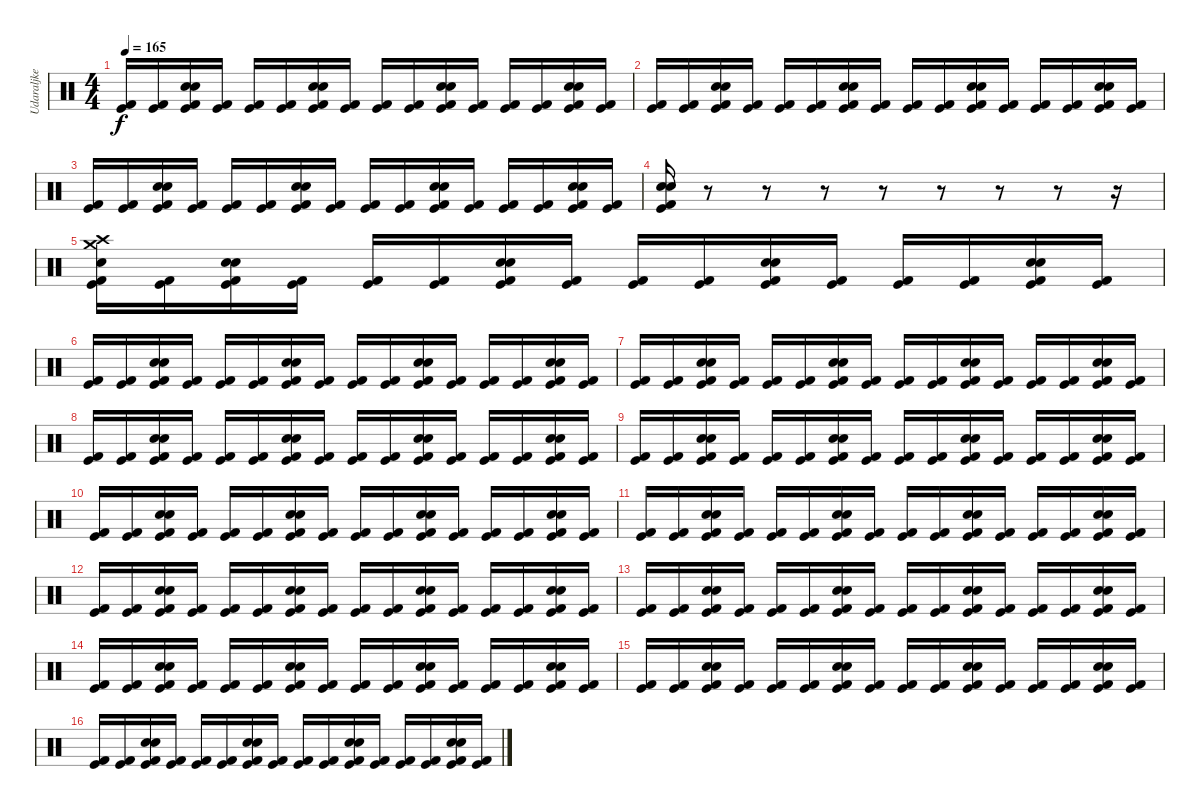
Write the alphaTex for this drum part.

\track ("Udaraljke" "Udaraljke") {instrument percussion}
\staff {score}
\articulation defaults
\ts (4 4)
\tempo 165
\clef neutral
\ks c
("Kick (hit) 2" "Kick (hit)").16{dy f} ("Kick (hit) 2" "Kick (hit)").16 ("Snare (hit) 2" "Snare (hit) 2" "Kick (hit) 2" "Kick (hit)").16 ("Kick (hit) 2" "Kick (hit)").16 ("Kick (hit) 2" "Kick (hit)").16 ("Kick (hit) 2" "Kick (hit)").16 ("Snare (hit) 2" "Snare (hit) 2" "Kick (hit) 2" "Kick (hit)").16 ("Kick (hit) 2" "Kick (hit)").16 ("Kick (hit) 2" "Kick (hit)").16 ("Kick (hit) 2" "Kick (hit)").16 ("Snare (hit) 2" "Snare (hit) 2" "Kick (hit) 2" "Kick (hit)").16 ("Kick (hit) 2" "Kick (hit)").16 ("Kick (hit) 2" "Kick (hit)").16 ("Kick (hit) 2" "Kick (hit)").16 ("Snare (hit) 2" "Snare (hit) 2" "Kick (hit) 2" "Kick (hit)").16 ("Kick (hit) 2" "Kick (hit)").16 |
("Kick (hit) 2" "Kick (hit)").16 ("Kick (hit) 2" "Kick (hit)").16 ("Snare (hit) 2" "Snare (hit) 2" "Kick (hit) 2" "Kick (hit)").16 ("Kick (hit) 2" "Kick (hit)").16 ("Kick (hit) 2" "Kick (hit)").16 ("Kick (hit) 2" "Kick (hit)").16 ("Snare (hit) 2" "Snare (hit) 2" "Kick (hit) 2" "Kick (hit)").16 ("Kick (hit) 2" "Kick (hit)").16 ("Kick (hit) 2" "Kick (hit)").16 ("Kick (hit) 2" "Kick (hit)").16 ("Snare (hit) 2" "Snare (hit) 2" "Kick (hit) 2" "Kick (hit)").16 ("Kick (hit) 2" "Kick (hit)").16 ("Kick (hit) 2" "Kick (hit)").16 ("Kick (hit) 2" "Kick (hit)").16 ("Snare (hit) 2" "Snare (hit) 2" "Kick (hit) 2" "Kick (hit)").16 ("Kick (hit) 2" "Kick (hit)").16 |
("Kick (hit) 2" "Kick (hit)").16 ("Kick (hit) 2" "Kick (hit)").16 ("Snare (hit) 2" "Snare (hit) 2" "Kick (hit) 2" "Kick (hit)").16 ("Kick (hit) 2" "Kick (hit)").16 ("Kick (hit) 2" "Kick (hit)").16 ("Kick (hit) 2" "Kick (hit)").16 ("Snare (hit) 2" "Snare (hit) 2" "Kick (hit) 2" "Kick (hit)").16 ("Kick (hit) 2" "Kick (hit)").16 ("Kick (hit) 2" "Kick (hit)").16 ("Kick (hit) 2" "Kick (hit)").16 ("Snare (hit) 2" "Snare (hit) 2" "Kick (hit) 2" "Kick (hit)").16 ("Kick (hit) 2" "Kick (hit)").16 ("Kick (hit) 2" "Kick (hit)").16 ("Kick (hit) 2" "Kick (hit)").16 ("Snare (hit) 2" "Snare (hit) 2" "Kick (hit) 2" "Kick (hit)").16 ("Kick (hit) 2" "Kick (hit)").16 |
("Snare (hit) 2" "Snare (hit) 2" "Kick (hit) 2" "Kick (hit)").16 r.8 r.8 r.8 r.8 r.8 r.8 r.8 r.16 |
("Crash medium (hit)" "Crash high (hit)" "Snare (hit) 2" "Kick (hit) 2" "Kick (hit)").16 ("Kick (hit) 2" "Kick (hit)").16 ("Snare (hit) 2" "Snare (hit) 2" "Kick (hit) 2" "Kick (hit)").16 ("Kick (hit) 2" "Kick (hit)").16 ("Kick (hit) 2" "Kick (hit)").16 ("Kick (hit) 2" "Kick (hit)").16 ("Snare (hit) 2" "Snare (hit) 2" "Kick (hit) 2" "Kick (hit)").16 ("Kick (hit) 2" "Kick (hit)").16 ("Kick (hit) 2" "Kick (hit)").16 ("Kick (hit) 2" "Kick (hit)").16 ("Snare (hit) 2" "Snare (hit) 2" "Kick (hit) 2" "Kick (hit)").16 ("Kick (hit) 2" "Kick (hit)").16 ("Kick (hit) 2" "Kick (hit)").16 ("Kick (hit) 2" "Kick (hit)").16 ("Snare (hit) 2" "Snare (hit) 2" "Kick (hit) 2" "Kick (hit)").16 ("Kick (hit) 2" "Kick (hit)").16 |
("Kick (hit) 2" "Kick (hit)").16 ("Kick (hit) 2" "Kick (hit)").16 ("Snare (hit) 2" "Snare (hit) 2" "Kick (hit) 2" "Kick (hit)").16 ("Kick (hit) 2" "Kick (hit)").16 ("Kick (hit) 2" "Kick (hit)").16 ("Kick (hit) 2" "Kick (hit)").16 ("Snare (hit) 2" "Snare (hit) 2" "Kick (hit) 2" "Kick (hit)").16 ("Kick (hit) 2" "Kick (hit)").16 ("Kick (hit) 2" "Kick (hit)").16 ("Kick (hit) 2" "Kick (hit)").16 ("Snare (hit) 2" "Snare (hit) 2" "Kick (hit) 2" "Kick (hit)").16 ("Kick (hit) 2" "Kick (hit)").16 ("Kick (hit) 2" "Kick (hit)").16 ("Kick (hit) 2" "Kick (hit)").16 ("Snare (hit) 2" "Snare (hit) 2" "Kick (hit) 2" "Kick (hit)").16 ("Kick (hit) 2" "Kick (hit)").16 |
("Kick (hit) 2" "Kick (hit)").16 ("Kick (hit) 2" "Kick (hit)").16 ("Snare (hit) 2" "Snare (hit) 2" "Kick (hit) 2" "Kick (hit)").16 ("Kick (hit) 2" "Kick (hit)").16 ("Kick (hit) 2" "Kick (hit)").16 ("Kick (hit) 2" "Kick (hit)").16 ("Snare (hit) 2" "Snare (hit) 2" "Kick (hit) 2" "Kick (hit)").16 ("Kick (hit) 2" "Kick (hit)").16 ("Kick (hit) 2" "Kick (hit)").16 ("Kick (hit) 2" "Kick (hit)").16 ("Snare (hit) 2" "Snare (hit) 2" "Kick (hit) 2" "Kick (hit)").16 ("Kick (hit) 2" "Kick (hit)").16 ("Kick (hit) 2" "Kick (hit)").16 ("Kick (hit) 2" "Kick (hit)").16 ("Snare (hit) 2" "Snare (hit) 2" "Kick (hit) 2" "Kick (hit)").16 ("Kick (hit) 2" "Kick (hit)").16 |
("Kick (hit) 2" "Kick (hit)").16 ("Kick (hit) 2" "Kick (hit)").16 ("Snare (hit) 2" "Snare (hit) 2" "Kick (hit) 2" "Kick (hit)").16 ("Kick (hit) 2" "Kick (hit)").16 ("Kick (hit) 2" "Kick (hit)").16 ("Kick (hit) 2" "Kick (hit)").16 ("Snare (hit) 2" "Snare (hit) 2" "Kick (hit) 2" "Kick (hit)").16 ("Kick (hit) 2" "Kick (hit)").16 ("Kick (hit) 2" "Kick (hit)").16 ("Kick (hit) 2" "Kick (hit)").16 ("Snare (hit) 2" "Snare (hit) 2" "Kick (hit) 2" "Kick (hit)").16 ("Kick (hit) 2" "Kick (hit)").16 ("Kick (hit) 2" "Kick (hit)").16 ("Kick (hit) 2" "Kick (hit)").16 ("Snare (hit) 2" "Snare (hit) 2" "Kick (hit) 2" "Kick (hit)").16 ("Kick (hit) 2" "Kick (hit)").16 |
("Kick (hit) 2" "Kick (hit)").16 ("Kick (hit) 2" "Kick (hit)").16 ("Snare (hit) 2" "Snare (hit) 2" "Kick (hit) 2" "Kick (hit)").16 ("Kick (hit) 2" "Kick (hit)").16 ("Kick (hit) 2" "Kick (hit)").16 ("Kick (hit) 2" "Kick (hit)").16 ("Snare (hit) 2" "Snare (hit) 2" "Kick (hit) 2" "Kick (hit)").16 ("Kick (hit) 2" "Kick (hit)").16 ("Kick (hit) 2" "Kick (hit)").16 ("Kick (hit) 2" "Kick (hit)").16 ("Snare (hit) 2" "Snare (hit) 2" "Kick (hit) 2" "Kick (hit)").16 ("Kick (hit) 2" "Kick (hit)").16 ("Kick (hit) 2" "Kick (hit)").16 ("Kick (hit) 2" "Kick (hit)").16 ("Snare (hit) 2" "Snare (hit) 2" "Kick (hit) 2" "Kick (hit)").16 ("Kick (hit) 2" "Kick (hit)").16 |
("Kick (hit) 2" "Kick (hit)").16 ("Kick (hit) 2" "Kick (hit)").16 ("Snare (hit) 2" "Snare (hit) 2" "Kick (hit) 2" "Kick (hit)").16 ("Kick (hit) 2" "Kick (hit)").16 ("Kick (hit) 2" "Kick (hit)").16 ("Kick (hit) 2" "Kick (hit)").16 ("Snare (hit) 2" "Snare (hit) 2" "Kick (hit) 2" "Kick (hit)").16 ("Kick (hit) 2" "Kick (hit)").16 ("Kick (hit) 2" "Kick (hit)").16 ("Kick (hit) 2" "Kick (hit)").16 ("Snare (hit) 2" "Snare (hit) 2" "Kick (hit) 2" "Kick (hit)").16 ("Kick (hit) 2" "Kick (hit)").16 ("Kick (hit) 2" "Kick (hit)").16 ("Kick (hit) 2" "Kick (hit)").16 ("Snare (hit) 2" "Snare (hit) 2" "Kick (hit) 2" "Kick (hit)").16 ("Kick (hit) 2" "Kick (hit)").16 |
("Kick (hit) 2" "Kick (hit)").16 ("Kick (hit) 2" "Kick (hit)").16 ("Snare (hit) 2" "Snare (hit) 2" "Kick (hit) 2" "Kick (hit)").16 ("Kick (hit) 2" "Kick (hit)").16 ("Kick (hit) 2" "Kick (hit)").16 ("Kick (hit) 2" "Kick (hit)").16 ("Snare (hit) 2" "Snare (hit) 2" "Kick (hit) 2" "Kick (hit)").16 ("Kick (hit) 2" "Kick (hit)").16 ("Kick (hit) 2" "Kick (hit)").16 ("Kick (hit) 2" "Kick (hit)").16 ("Snare (hit) 2" "Snare (hit) 2" "Kick (hit) 2" "Kick (hit)").16 ("Kick (hit) 2" "Kick (hit)").16 ("Kick (hit) 2" "Kick (hit)").16 ("Kick (hit) 2" "Kick (hit)").16 ("Snare (hit) 2" "Snare (hit) 2" "Kick (hit) 2" "Kick (hit)").16 ("Kick (hit) 2" "Kick (hit)").16 |
("Kick (hit) 2" "Kick (hit)").16 ("Kick (hit) 2" "Kick (hit)").16 ("Snare (hit) 2" "Snare (hit) 2" "Kick (hit) 2" "Kick (hit)").16 ("Kick (hit) 2" "Kick (hit)").16 ("Kick (hit) 2" "Kick (hit)").16 ("Kick (hit) 2" "Kick (hit)").16 ("Snare (hit) 2" "Snare (hit) 2" "Kick (hit) 2" "Kick (hit)").16 ("Kick (hit) 2" "Kick (hit)").16 ("Kick (hit) 2" "Kick (hit)").16 ("Kick (hit) 2" "Kick (hit)").16 ("Snare (hit) 2" "Snare (hit) 2" "Kick (hit) 2" "Kick (hit)").16 ("Kick (hit) 2" "Kick (hit)").16 ("Kick (hit) 2" "Kick (hit)").16 ("Kick (hit) 2" "Kick (hit)").16 ("Snare (hit) 2" "Snare (hit) 2" "Kick (hit) 2" "Kick (hit)").16 ("Kick (hit) 2" "Kick (hit)").16 |
("Kick (hit) 2" "Kick (hit)").16 ("Kick (hit) 2" "Kick (hit)").16 ("Snare (hit) 2" "Snare (hit) 2" "Kick (hit) 2" "Kick (hit)").16 ("Kick (hit) 2" "Kick (hit)").16 ("Kick (hit) 2" "Kick (hit)").16 ("Kick (hit) 2" "Kick (hit)").16 ("Snare (hit) 2" "Snare (hit) 2" "Kick (hit) 2" "Kick (hit)").16 ("Kick (hit) 2" "Kick (hit)").16 ("Kick (hit) 2" "Kick (hit)").16 ("Kick (hit) 2" "Kick (hit)").16 ("Snare (hit) 2" "Snare (hit) 2" "Kick (hit) 2" "Kick (hit)").16 ("Kick (hit) 2" "Kick (hit)").16 ("Kick (hit) 2" "Kick (hit)").16 ("Kick (hit) 2" "Kick (hit)").16 ("Snare (hit) 2" "Snare (hit) 2" "Kick (hit) 2" "Kick (hit)").16 ("Kick (hit) 2" "Kick (hit)").16 |
("Kick (hit) 2" "Kick (hit)").16 ("Kick (hit) 2" "Kick (hit)").16 ("Snare (hit) 2" "Snare (hit) 2" "Kick (hit) 2" "Kick (hit)").16 ("Kick (hit) 2" "Kick (hit)").16 ("Kick (hit) 2" "Kick (hit)").16 ("Kick (hit) 2" "Kick (hit)").16 ("Snare (hit) 2" "Snare (hit) 2" "Kick (hit) 2" "Kick (hit)").16 ("Kick (hit) 2" "Kick (hit)").16 ("Kick (hit) 2" "Kick (hit)").16 ("Kick (hit) 2" "Kick (hit)").16 ("Snare (hit) 2" "Snare (hit) 2" "Kick (hit) 2" "Kick (hit)").16 ("Kick (hit) 2" "Kick (hit)").16 ("Kick (hit) 2" "Kick (hit)").16 ("Kick (hit) 2" "Kick (hit)").16 ("Snare (hit) 2" "Snare (hit) 2" "Kick (hit) 2" "Kick (hit)").16 ("Kick (hit) 2" "Kick (hit)").16 |
("Kick (hit) 2" "Kick (hit)").16 ("Kick (hit) 2" "Kick (hit)").16 ("Snare (hit) 2" "Snare (hit) 2" "Kick (hit) 2" "Kick (hit)").16 ("Kick (hit) 2" "Kick (hit)").16 ("Kick (hit) 2" "Kick (hit)").16 ("Kick (hit) 2" "Kick (hit)").16 ("Snare (hit) 2" "Snare (hit) 2" "Kick (hit) 2" "Kick (hit)").16 ("Kick (hit) 2" "Kick (hit)").16 ("Kick (hit) 2" "Kick (hit)").16 ("Kick (hit) 2" "Kick (hit)").16 ("Snare (hit) 2" "Snare (hit) 2" "Kick (hit) 2" "Kick (hit)").16 ("Kick (hit) 2" "Kick (hit)").16 ("Kick (hit) 2" "Kick (hit)").16 ("Kick (hit) 2" "Kick (hit)").16 ("Snare (hit) 2" "Snare (hit) 2" "Kick (hit) 2" "Kick (hit)").16 ("Kick (hit) 2" "Kick (hit)").16 |
("Kick (hit) 2" "Kick (hit)").16 ("Kick (hit) 2" "Kick (hit)").16 ("Snare (hit) 2" "Snare (hit) 2" "Kick (hit) 2" "Kick (hit)").16 ("Kick (hit) 2" "Kick (hit)").16 ("Kick (hit) 2" "Kick (hit)").16 ("Kick (hit) 2" "Kick (hit)").16 ("Snare (hit) 2" "Snare (hit) 2" "Kick (hit) 2" "Kick (hit)").16 ("Kick (hit) 2" "Kick (hit)").16 ("Kick (hit) 2" "Kick (hit)").16 ("Kick (hit) 2" "Kick (hit)").16 ("Snare (hit) 2" "Snare (hit) 2" "Kick (hit) 2" "Kick (hit)").16 ("Kick (hit) 2" "Kick (hit)").16 ("Kick (hit) 2" "Kick (hit)").16 ("Kick (hit) 2" "Kick (hit)").16 ("Snare (hit) 2" "Snare (hit) 2" "Kick (hit) 2" "Kick (hit)").16 ("Kick (hit) 2" "Kick (hit)").16
